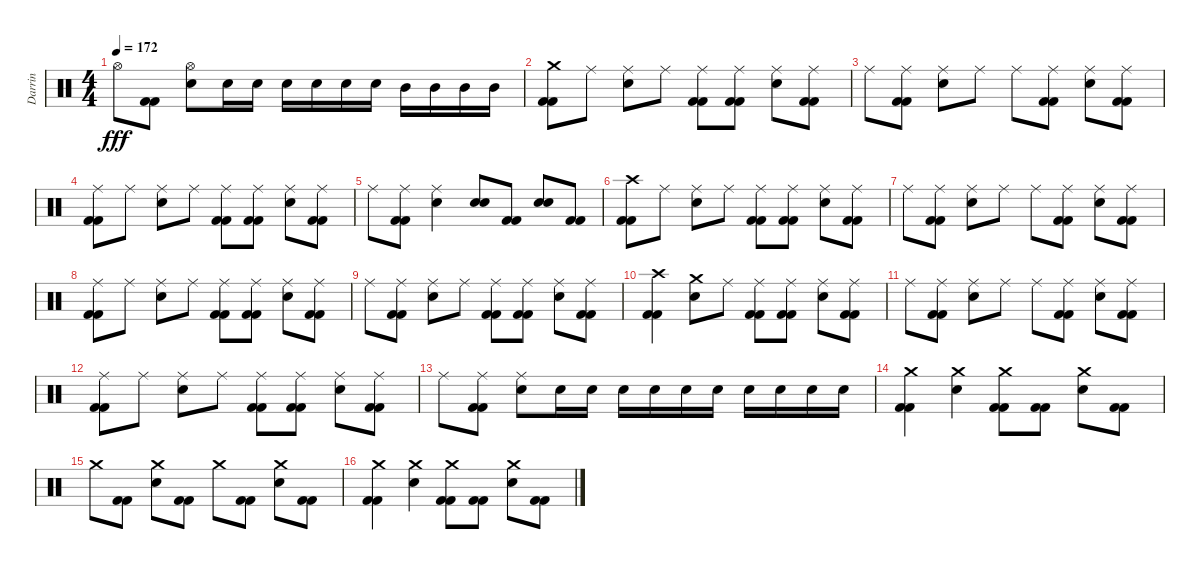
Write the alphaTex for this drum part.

\track ("Darrin" "Darrin") {instrument percussion}
\staff {score}
\articulation defaults
\ts (4 4)
\tempo 172
\clef neutral
\ks c "Hi-Hat (open)".8{dy fff}
("Kick (hit) 2" "Kick (hit) 2").8 ("Hi-Hat (open)" "Snare (hit) 2").8 "Snare (hit) 2".16 "Snare (hit) 2".16 "Snare (hit) 2".16 "Snare (hit) 2".16 "Snare (hit) 2".16 "Snare (hit) 2".16 "Mid Tom (hit)".16 "Mid Tom (hit)".16 "Mid Tom (hit)".16 "Mid Tom (hit)".16 |
("Crash medium (hit)" "Kick (hit) 2" "Kick (hit) 2").8 "Ride (middle)".8 ("Ride (middle)" "Snare (hit) 2").8 "Ride (middle)".8 ("Ride (middle)" "Kick (hit) 2" "Kick (hit) 2").8 ("Ride (middle)" "Kick (hit) 2" "Kick (hit) 2").8 ("Ride (middle)" "Snare (hit) 2").8 ("Ride (middle)" "Kick (hit) 2" "Kick (hit) 2").8 |
"Ride (middle)".8 ("Ride (middle)" "Kick (hit) 2" "Kick (hit) 2").8 ("Ride (middle)" "Snare (hit) 2").8 "Ride (middle)".8 "Ride (middle)".8 ("Ride (middle)" "Kick (hit) 2" "Kick (hit) 2").8 ("Ride (middle)" "Snare (hit) 2").8 ("Ride (middle)" "Kick (hit) 2" "Kick (hit) 2").8 |
("Ride (middle)" "Kick (hit) 2" "Kick (hit) 2").8 "Ride (middle)".8 ("Ride (middle)" "Snare (hit) 2").8 "Ride (middle)".8 ("Ride (middle)" "Kick (hit) 2" "Kick (hit) 2").8 ("Ride (middle)" "Kick (hit) 2" "Kick (hit) 2").8 ("Ride (middle)" "Snare (hit) 2").8 ("Ride (middle)" "Kick (hit) 2" "Kick (hit) 2").8 |
"Ride (middle)".8 ("Ride (middle)" "Kick (hit) 2" "Kick (hit) 2").8 ("Ride (middle)" "Snare (hit) 2").4 ("Snare (hit) 2" "Snare (hit) 2").8 ("Kick (hit) 2" "Kick (hit) 2").8 ("Snare (hit) 2" "Snare (hit) 2").8 ("Kick (hit) 2" "Kick (hit) 2").8 |
("Crash high (hit)" "Kick (hit) 2" "Kick (hit) 2").8 "Ride (middle)".8 ("Ride (middle)" "Snare (hit) 2").8 "Ride (middle)".8 ("Ride (middle)" "Kick (hit) 2" "Kick (hit) 2").8 ("Ride (middle)" "Kick (hit) 2" "Kick (hit) 2").8 ("Ride (middle)" "Snare (hit) 2").8 ("Ride (middle)" "Kick (hit) 2" "Kick (hit) 2").8 |
"Ride (middle)".8 ("Ride (middle)" "Kick (hit) 2" "Kick (hit) 2").8 ("Ride (middle)" "Snare (hit) 2").8 "Ride (middle)".8 "Ride (middle)".8 ("Ride (middle)" "Kick (hit) 2" "Kick (hit) 2").8 ("Ride (middle)" "Snare (hit) 2").8 ("Ride (middle)" "Kick (hit) 2" "Kick (hit) 2").8 |
("Ride (middle)" "Kick (hit) 2" "Kick (hit) 2").8 "Ride (middle)".8 ("Ride (middle)" "Snare (hit) 2").8 "Ride (middle)".8 ("Ride (middle)" "Kick (hit) 2" "Kick (hit) 2").8 ("Ride (middle)" "Kick (hit) 2" "Kick (hit) 2").8 ("Ride (middle)" "Snare (hit) 2").8 ("Ride (middle)" "Kick (hit) 2" "Kick (hit) 2").8 |
"Ride (middle)".8 ("Ride (middle)" "Kick (hit) 2" "Kick (hit) 2").8 ("Ride (middle)" "Snare (hit) 2").8 "Ride (middle)".8 ("Ride (middle)" "Kick (hit) 2" "Kick (hit) 2").8 ("Ride (middle)" "Kick (hit) 2" "Kick (hit) 2").8 ("Ride (middle)" "Snare (hit) 2").8 ("Ride (middle)" "Kick (hit) 2" "Kick (hit) 2").8 |
("Crash high (hit)" "Kick (hit) 2" "Kick (hit) 2").4 ("Crash medium (hit)" "Snare (hit) 2").8 "Ride (middle)".8 ("Ride (middle)" "Kick (hit) 2" "Kick (hit) 2").8 ("Ride (middle)" "Kick (hit) 2" "Kick (hit) 2").8 ("Ride (middle)" "Snare (hit) 2").8 ("Ride (middle)" "Kick (hit) 2" "Kick (hit) 2").8 |
"Ride (middle)".8 ("Ride (middle)" "Kick (hit) 2" "Kick (hit) 2").8 ("Ride (middle)" "Snare (hit) 2").8 "Ride (middle)".8 "Ride (middle)".8 ("Ride (middle)" "Kick (hit) 2" "Kick (hit) 2").8 ("Ride (middle)" "Snare (hit) 2").8 ("Ride (middle)" "Kick (hit) 2" "Kick (hit) 2").8 |
("Ride (middle)" "Kick (hit) 2" "Kick (hit) 2").8 "Ride (middle)".8 ("Ride (middle)" "Snare (hit) 2").8 "Ride (middle)".8 ("Ride (middle)" "Kick (hit) 2" "Kick (hit) 2").8 ("Ride (middle)" "Kick (hit) 2" "Kick (hit) 2").8 ("Ride (middle)" "Snare (hit) 2").8 ("Ride (middle)" "Kick (hit) 2" "Kick (hit) 2").8 |
"Ride (middle)".8 ("Ride (middle)" "Kick (hit) 2" "Kick (hit) 2").8 ("Ride (middle)" "Snare (hit) 2").8 "Snare (hit) 2".16 "Snare (hit) 2".16 "Snare (hit) 2".16 "Snare (hit) 2".16 "Snare (hit) 2".16 "Snare (hit) 2".16 "Snare (hit) 2".16 "Snare (hit) 2".16 "Snare (hit) 2".16 "Snare (hit) 2".16 |
("Crash medium (hit)" "Kick (hit) 2" "Kick (hit) 2").4 ("Crash medium (hit)" "Snare (hit) 2").4 ("Crash medium (hit)" "Kick (hit) 2" "Kick (hit) 2").8 ("Kick (hit) 2" "Kick (hit) 2").8 ("Crash medium (hit)" "Snare (hit) 2").8 ("Kick (hit) 2" "Kick (hit) 2").8 |
"Crash medium (hit)".8 ("Kick (hit) 2" "Kick (hit) 2").8 ("Crash medium (hit)" "Snare (hit) 2").8 ("Kick (hit) 2" "Kick (hit) 2").8 "Crash medium (hit)".8 ("Kick (hit) 2" "Kick (hit) 2").8 ("Crash medium (hit)" "Snare (hit) 2").8 ("Kick (hit) 2" "Kick (hit) 2").8 |
("Crash medium (hit)" "Kick (hit) 2" "Kick (hit) 2").4 ("Crash medium (hit)" "Snare (hit) 2").4 ("Crash medium (hit)" "Kick (hit) 2" "Kick (hit) 2").8 ("Kick (hit) 2" "Kick (hit) 2").8 ("Crash medium (hit)" "Snare (hit) 2").8 ("Kick (hit) 2" "Kick (hit) 2").8
